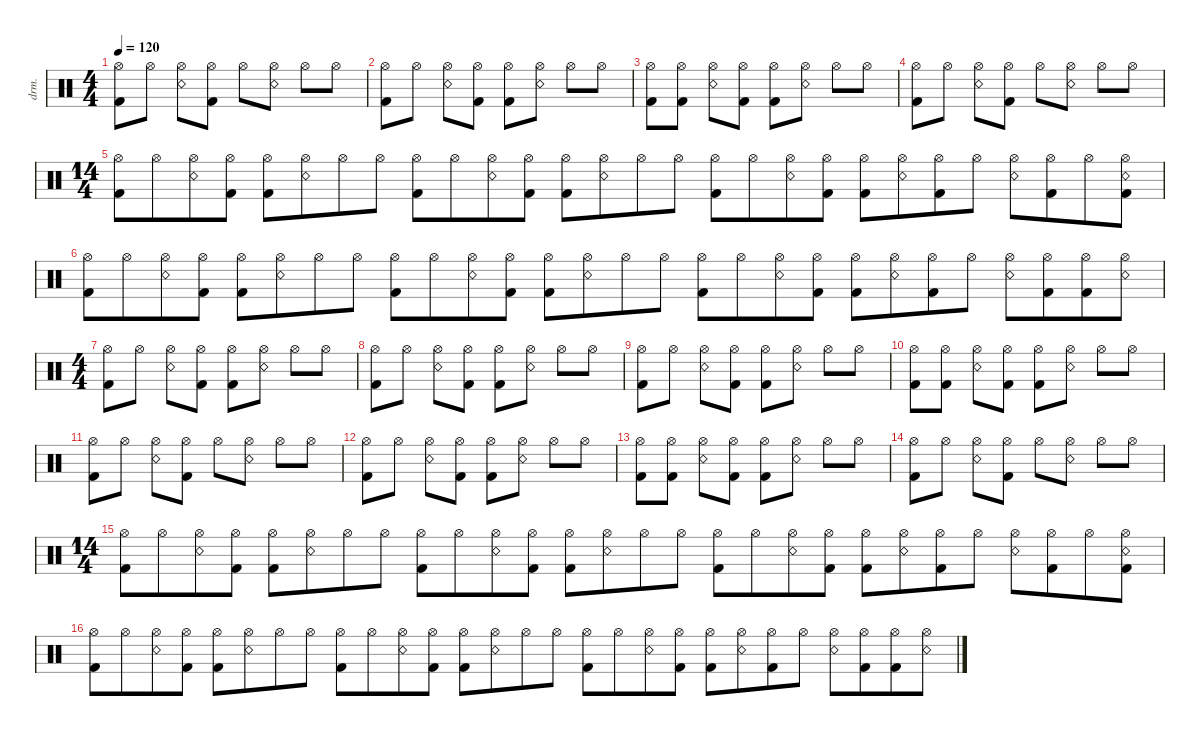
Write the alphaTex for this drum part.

\defaultSystemsLayout 4
\hideDynamics
\bracketExtendMode nobrackets
\otherSystemsTrackNameOrientation horizontal
\track ("Drumkit" "drm.") {instrument percussion}
\staff {score}
\articulation defaults
\ts (4 4)
\tempo 120
\clef neutral
\ks c
("Kick (hit) 2" "Hi-Hat (open)").8{dy mf beam Down} "Hi-Hat (open)".8{beam Down} ("Hi-Hat (open)" "Snare (rim shot)").8{beam Down} ("Hi-Hat (open)" "Kick (hit) 2").8{beam Down} "Hi-Hat (open)".8{beam Down} ("Hi-Hat (open)" "Snare (rim shot)").8{beam Down} "Hi-Hat (open)".8{beam Down} "Hi-Hat (open)".8{beam Down} |
("Kick (hit) 2" "Hi-Hat (open)").8{beam Down} "Hi-Hat (open)".8{beam Down} ("Hi-Hat (open)" "Snare (rim shot)").8{beam Down} ("Hi-Hat (open)" "Kick (hit) 2").8{beam Down} ("Hi-Hat (open)" "Kick (hit) 2").8{beam Down} ("Hi-Hat (open)" "Snare (rim shot)").8{beam Down} "Hi-Hat (open)".8{beam Down} "Hi-Hat (open)".8{beam Down} |
("Kick (hit) 2" "Hi-Hat (open)").8{beam Down} ("Hi-Hat (open)" "Kick (hit) 2").8{beam Down} ("Hi-Hat (open)" "Snare (rim shot)").8{beam Down} ("Hi-Hat (open)" "Kick (hit) 2").8{beam Down} ("Hi-Hat (open)" "Kick (hit) 2").8{beam Down} ("Hi-Hat (open)" "Snare (rim shot)").8{beam Down} "Hi-Hat (open)".8{beam Down} "Hi-Hat (open)".8{beam Down} |
("Kick (hit) 2" "Hi-Hat (open)").8{beam Down} "Hi-Hat (open)".8{beam Down} ("Hi-Hat (open)" "Snare (rim shot)").8{beam Down} ("Hi-Hat (open)" "Kick (hit) 2").8{beam Down} "Hi-Hat (open)".8{beam Down} ("Hi-Hat (open)" "Snare (rim shot)").8{beam Down} "Hi-Hat (open)".8{beam Down} "Hi-Hat (open)".8{beam Down} |
\ts (14 4)
\beaming (8 4 4 4 4 4 4 4)
("Kick (hit) 2" "Hi-Hat (open)").8{beam Down} "Hi-Hat (open)".8{beam Down} ("Hi-Hat (open)" "Snare (rim shot)").8{beam Down} ("Hi-Hat (open)" "Kick (hit) 2").8{beam Down} ("Hi-Hat (open)" "Kick (hit) 2").8{beam Down} ("Hi-Hat (open)" "Snare (rim shot)").8{beam Down} "Hi-Hat (open)".8{beam Down} "Hi-Hat (open)".8{beam Down} ("Kick (hit) 2" "Hi-Hat (open)").8{beam Down} "Hi-Hat (open)".8{beam Down} ("Hi-Hat (open)" "Snare (rim shot)").8{beam Down} ("Hi-Hat (open)" "Kick (hit) 2").8{beam Down} ("Hi-Hat (open)" "Kick (hit) 2").8{beam Down} ("Hi-Hat (open)" "Snare (rim shot)").8{beam Down} "Hi-Hat (open)".8{beam Down} "Hi-Hat (open)".8{beam Down} ("Kick (hit) 2" "Hi-Hat (open)").8{beam Down} "Hi-Hat (open)".8{beam Down} ("Hi-Hat (open)" "Snare (rim shot)").8{beam Down} ("Hi-Hat (open)" "Kick (hit) 2").8{beam Down} ("Hi-Hat (open)" "Kick (hit) 2").8{beam Down} ("Hi-Hat (open)" "Snare (rim shot)").8{beam Down} ("Hi-Hat (open)" "Kick (hit) 2").8{beam Down} "Hi-Hat (open)".8{beam Down} ("Hi-Hat (open)" "Snare (rim shot)").8{beam Down} ("Hi-Hat (open)" "Kick (hit) 2").8{beam Down} "Hi-Hat (open)".8{beam Down} ("Hi-Hat (open)" "Kick (hit) 2" "Snare (rim shot)").8{beam Down} |
("Kick (hit) 2" "Hi-Hat (open)").8{beam Down} "Hi-Hat (open)".8{beam Down} ("Hi-Hat (open)" "Snare (rim shot)").8{beam Down} ("Hi-Hat (open)" "Kick (hit) 2").8{beam Down} ("Hi-Hat (open)" "Kick (hit) 2").8{beam Down} ("Hi-Hat (open)" "Snare (rim shot)").8{beam Down} "Hi-Hat (open)".8{beam Down} "Hi-Hat (open)".8{beam Down} ("Kick (hit) 2" "Hi-Hat (open)").8{beam Down} "Hi-Hat (open)".8{beam Down} ("Hi-Hat (open)" "Snare (rim shot)").8{beam Down} ("Hi-Hat (open)" "Kick (hit) 2").8{beam Down} ("Hi-Hat (open)" "Kick (hit) 2").8{beam Down} ("Hi-Hat (open)" "Snare (rim shot)").8{beam Down} "Hi-Hat (open)".8{beam Down} "Hi-Hat (open)".8{beam Down} ("Kick (hit) 2" "Hi-Hat (open)").8{beam Down} "Hi-Hat (open)".8{beam Down} ("Hi-Hat (open)" "Snare (rim shot)").8{beam Down} ("Hi-Hat (open)" "Kick (hit) 2").8{beam Down} ("Hi-Hat (open)" "Kick (hit) 2").8{beam Down} ("Hi-Hat (open)" "Snare (rim shot)").8{beam Down} ("Hi-Hat (open)" "Kick (hit) 2").8{beam Down} "Hi-Hat (open)".8{beam Down} ("Hi-Hat (open)" "Snare (rim shot)").8{beam Down} ("Hi-Hat (open)" "Kick (hit) 2").8{beam Down} ("Hi-Hat (open)" "Kick (hit) 2").8{beam Down} ("Hi-Hat (open)" "Snare (rim shot)").8{beam Down} |
\ts (4 4)
\beaming (8 2 2 2 2)
("Kick (hit) 2" "Hi-Hat (open)").8{beam Down} "Hi-Hat (open)".8{beam Down} ("Hi-Hat (open)" "Snare (rim shot)").8{beam Down} ("Hi-Hat (open)" "Kick (hit) 2").8{beam Down} ("Hi-Hat (open)" "Kick (hit) 2").8{beam Down} ("Hi-Hat (open)" "Snare (rim shot)").8{beam Down} "Hi-Hat (open)".8{beam Down} "Hi-Hat (open)".8{beam Down} |
("Kick (hit) 2" "Hi-Hat (open)").8{beam Down} "Hi-Hat (open)".8{beam Down} ("Hi-Hat (open)" "Snare (rim shot)").8{beam Down} ("Hi-Hat (open)" "Kick (hit) 2").8{beam Down} ("Hi-Hat (open)" "Kick (hit) 2").8{beam Down} ("Hi-Hat (open)" "Snare (rim shot)").8{beam Down} "Hi-Hat (open)".8{beam Down} "Hi-Hat (open)".8{beam Down} |
("Kick (hit) 2" "Hi-Hat (open)").8{beam Down} "Hi-Hat (open)".8{beam Down} ("Hi-Hat (open)" "Snare (rim shot)").8{beam Down} ("Hi-Hat (open)" "Kick (hit) 2").8{beam Down} ("Hi-Hat (open)" "Kick (hit) 2").8{beam Down} ("Hi-Hat (open)" "Snare (rim shot)").8{beam Down} "Hi-Hat (open)".8{beam Down} "Hi-Hat (open)".8{beam Down} |
("Kick (hit) 2" "Hi-Hat (open)").8{beam Down} ("Hi-Hat (open)" "Kick (hit) 2").8{beam Down} ("Hi-Hat (open)" "Snare (rim shot)").8{beam Down} ("Hi-Hat (open)" "Kick (hit) 2").8{beam Down} ("Hi-Hat (open)" "Kick (hit) 2").8{beam Down} ("Hi-Hat (open)" "Snare (rim shot)").8{beam Down} "Hi-Hat (open)".8{beam Down} "Hi-Hat (open)".8{beam Down} |
("Kick (hit) 2" "Hi-Hat (open)").8{beam Down} "Hi-Hat (open)".8{beam Down} ("Hi-Hat (open)" "Snare (rim shot)").8{beam Down} ("Hi-Hat (open)" "Kick (hit) 2").8{beam Down} "Hi-Hat (open)".8{beam Down} ("Hi-Hat (open)" "Snare (rim shot)").8{beam Down} "Hi-Hat (open)".8{beam Down} "Hi-Hat (open)".8{beam Down} |
("Kick (hit) 2" "Hi-Hat (open)").8{beam Down} "Hi-Hat (open)".8{beam Down} ("Hi-Hat (open)" "Snare (rim shot)").8{beam Down} ("Hi-Hat (open)" "Kick (hit) 2").8{beam Down} ("Hi-Hat (open)" "Kick (hit) 2").8{beam Down} ("Hi-Hat (open)" "Snare (rim shot)").8{beam Down} "Hi-Hat (open)".8{beam Down} "Hi-Hat (open)".8{beam Down} |
("Kick (hit) 2" "Hi-Hat (open)").8{beam Down} ("Hi-Hat (open)" "Kick (hit) 2").8{beam Down} ("Hi-Hat (open)" "Snare (rim shot)").8{beam Down} ("Hi-Hat (open)" "Kick (hit) 2").8{beam Down} ("Hi-Hat (open)" "Kick (hit) 2").8{beam Down} ("Hi-Hat (open)" "Snare (rim shot)").8{beam Down} "Hi-Hat (open)".8{beam Down} "Hi-Hat (open)".8{beam Down} |
("Kick (hit) 2" "Hi-Hat (open)").8{beam Down} "Hi-Hat (open)".8{beam Down} ("Hi-Hat (open)" "Snare (rim shot)").8{beam Down} ("Hi-Hat (open)" "Kick (hit) 2").8{beam Down} "Hi-Hat (open)".8{beam Down} ("Hi-Hat (open)" "Snare (rim shot)").8{beam Down} "Hi-Hat (open)".8{beam Down} "Hi-Hat (open)".8{beam Down} |
\ts (14 4)
\beaming (8 4 4 4 4 4 4 4)
("Kick (hit) 2" "Hi-Hat (open)").8{beam Down} "Hi-Hat (open)".8{beam Down} ("Hi-Hat (open)" "Snare (rim shot)").8{beam Down} ("Hi-Hat (open)" "Kick (hit) 2").8{beam Down} ("Hi-Hat (open)" "Kick (hit) 2").8{beam Down} ("Hi-Hat (open)" "Snare (rim shot)").8{beam Down} "Hi-Hat (open)".8{beam Down} "Hi-Hat (open)".8{beam Down} ("Kick (hit) 2" "Hi-Hat (open)").8{beam Down} "Hi-Hat (open)".8{beam Down} ("Hi-Hat (open)" "Snare (rim shot)").8{beam Down} ("Hi-Hat (open)" "Kick (hit) 2").8{beam Down} ("Hi-Hat (open)" "Kick (hit) 2").8{beam Down} ("Hi-Hat (open)" "Snare (rim shot)").8{beam Down} "Hi-Hat (open)".8{beam Down} "Hi-Hat (open)".8{beam Down} ("Kick (hit) 2" "Hi-Hat (open)").8{beam Down} "Hi-Hat (open)".8{beam Down} ("Hi-Hat (open)" "Snare (rim shot)").8{beam Down} ("Hi-Hat (open)" "Kick (hit) 2").8{beam Down} ("Hi-Hat (open)" "Kick (hit) 2").8{beam Down} ("Hi-Hat (open)" "Snare (rim shot)").8{beam Down} ("Hi-Hat (open)" "Kick (hit) 2").8{beam Down} "Hi-Hat (open)".8{beam Down} ("Hi-Hat (open)" "Snare (rim shot)").8{beam Down} ("Hi-Hat (open)" "Kick (hit) 2").8{beam Down} "Hi-Hat (open)".8{beam Down} ("Hi-Hat (open)" "Kick (hit) 2" "Snare (rim shot)").8{beam Down} |
("Kick (hit) 2" "Hi-Hat (open)").8{beam Down} "Hi-Hat (open)".8{beam Down} ("Hi-Hat (open)" "Snare (rim shot)").8{beam Down} ("Hi-Hat (open)" "Kick (hit) 2").8{beam Down} ("Hi-Hat (open)" "Kick (hit) 2").8{beam Down} ("Hi-Hat (open)" "Snare (rim shot)").8{beam Down} "Hi-Hat (open)".8{beam Down} "Hi-Hat (open)".8{beam Down} ("Kick (hit) 2" "Hi-Hat (open)").8{beam Down} "Hi-Hat (open)".8{beam Down} ("Hi-Hat (open)" "Snare (rim shot)").8{beam Down} ("Hi-Hat (open)" "Kick (hit) 2").8{beam Down} ("Hi-Hat (open)" "Kick (hit) 2").8{beam Down} ("Hi-Hat (open)" "Snare (rim shot)").8{beam Down} "Hi-Hat (open)".8{beam Down} "Hi-Hat (open)".8{beam Down} ("Kick (hit) 2" "Hi-Hat (open)").8{beam Down} "Hi-Hat (open)".8{beam Down} ("Hi-Hat (open)" "Snare (rim shot)").8{beam Down} ("Hi-Hat (open)" "Kick (hit) 2").8{beam Down} ("Hi-Hat (open)" "Kick (hit) 2").8{beam Down} ("Hi-Hat (open)" "Snare (rim shot)").8{beam Down} ("Hi-Hat (open)" "Kick (hit) 2").8{beam Down} "Hi-Hat (open)".8{beam Down} ("Hi-Hat (open)" "Snare (rim shot)").8{beam Down} ("Hi-Hat (open)" "Kick (hit) 2").8{beam Down} ("Hi-Hat (open)" "Kick (hit) 2").8{beam Down} ("Hi-Hat (open)" "Snare (rim shot)").8{beam Down}
